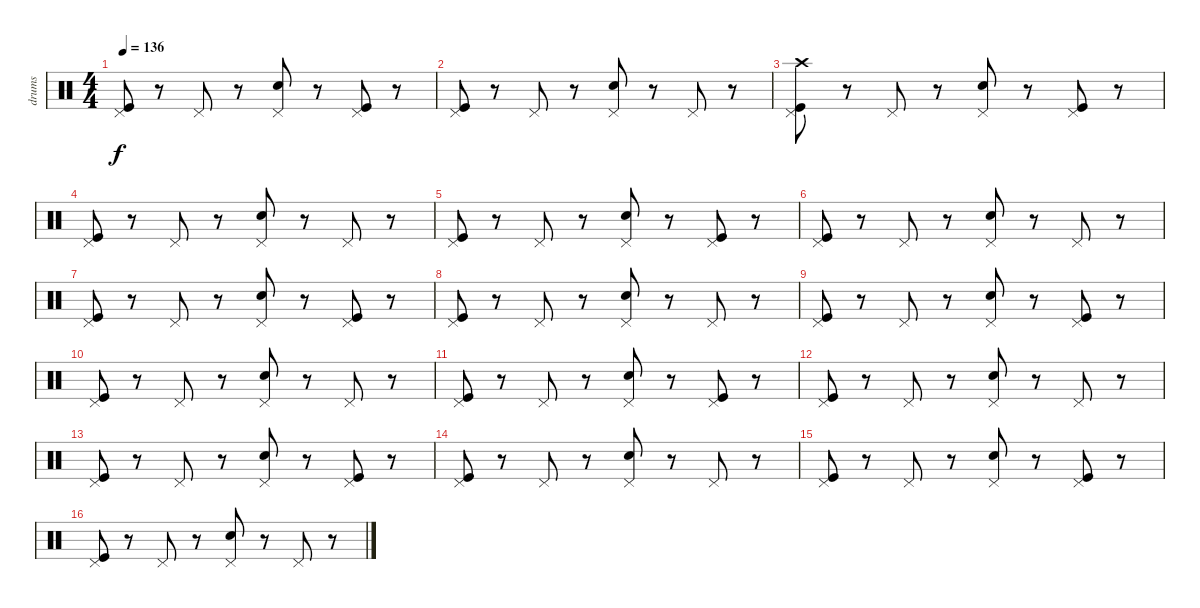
\track ("drums" "drums") {instrument percussion}
\staff {score}
\articulation defaults
\ts (4 4)
\tempo 136
\clef neutral
\ks c
("Kick (hit)" "Pedal Hi-Hat (hit)").8{dy f} r.8 "Pedal Hi-Hat (hit)".8 r.8 ("Snare (hit) 2" "Pedal Hi-Hat (hit)").8 r.8 ("Kick (hit)" "Pedal Hi-Hat (hit)").8 r.8 |
("Kick (hit)" "Pedal Hi-Hat (hit)").8 r.8 "Pedal Hi-Hat (hit)".8 r.8 ("Snare (hit) 2" "Pedal Hi-Hat (hit)").8 r.8 "Pedal Hi-Hat (hit)".8 r.8 |
("Kick (hit)" "Crash high (hit)" "Pedal Hi-Hat (hit)").8 r.8 "Pedal Hi-Hat (hit)".8 r.8 ("Snare (hit) 2" "Pedal Hi-Hat (hit)").8 r.8 ("Kick (hit)" "Pedal Hi-Hat (hit)").8 r.8 |
("Kick (hit)" "Pedal Hi-Hat (hit)").8 r.8 "Pedal Hi-Hat (hit)".8 r.8 ("Snare (hit) 2" "Pedal Hi-Hat (hit)").8 r.8 "Pedal Hi-Hat (hit)".8 r.8 |
("Kick (hit)" "Pedal Hi-Hat (hit)").8 r.8 "Pedal Hi-Hat (hit)".8 r.8 ("Snare (hit) 2" "Pedal Hi-Hat (hit)").8 r.8 ("Kick (hit)" "Pedal Hi-Hat (hit)").8 r.8 |
("Kick (hit)" "Pedal Hi-Hat (hit)").8 r.8 "Pedal Hi-Hat (hit)".8 r.8 ("Snare (hit) 2" "Pedal Hi-Hat (hit)").8 r.8 "Pedal Hi-Hat (hit)".8 r.8 |
("Kick (hit)" "Pedal Hi-Hat (hit)").8 r.8 "Pedal Hi-Hat (hit)".8 r.8 ("Snare (hit) 2" "Pedal Hi-Hat (hit)").8 r.8 ("Kick (hit)" "Pedal Hi-Hat (hit)").8 r.8 |
("Kick (hit)" "Pedal Hi-Hat (hit)").8 r.8 "Pedal Hi-Hat (hit)".8 r.8 ("Snare (hit) 2" "Pedal Hi-Hat (hit)").8 r.8 "Pedal Hi-Hat (hit)".8 r.8 |
("Kick (hit)" "Pedal Hi-Hat (hit)").8 r.8 "Pedal Hi-Hat (hit)".8 r.8 ("Snare (hit) 2" "Pedal Hi-Hat (hit)").8 r.8 ("Kick (hit)" "Pedal Hi-Hat (hit)").8 r.8 |
("Kick (hit)" "Pedal Hi-Hat (hit)").8 r.8 "Pedal Hi-Hat (hit)".8 r.8 ("Snare (hit) 2" "Pedal Hi-Hat (hit)").8 r.8 "Pedal Hi-Hat (hit)".8 r.8 |
("Kick (hit)" "Pedal Hi-Hat (hit)").8 r.8 "Pedal Hi-Hat (hit)".8 r.8 ("Snare (hit) 2" "Pedal Hi-Hat (hit)").8 r.8 ("Kick (hit)" "Pedal Hi-Hat (hit)").8 r.8 |
("Kick (hit)" "Pedal Hi-Hat (hit)").8 r.8 "Pedal Hi-Hat (hit)".8 r.8 ("Snare (hit) 2" "Pedal Hi-Hat (hit)").8 r.8 "Pedal Hi-Hat (hit)".8 r.8 |
("Kick (hit)" "Pedal Hi-Hat (hit)").8 r.8 "Pedal Hi-Hat (hit)".8 r.8 ("Snare (hit) 2" "Pedal Hi-Hat (hit)").8 r.8 ("Kick (hit)" "Pedal Hi-Hat (hit)").8 r.8 |
("Kick (hit)" "Pedal Hi-Hat (hit)").8 r.8 "Pedal Hi-Hat (hit)".8 r.8 ("Snare (hit) 2" "Pedal Hi-Hat (hit)").8 r.8 "Pedal Hi-Hat (hit)".8 r.8 |
("Kick (hit)" "Pedal Hi-Hat (hit)").8 r.8 "Pedal Hi-Hat (hit)".8 r.8 ("Snare (hit) 2" "Pedal Hi-Hat (hit)").8 r.8 ("Kick (hit)" "Pedal Hi-Hat (hit)").8 r.8 |
("Kick (hit)" "Pedal Hi-Hat (hit)").8 r.8 "Pedal Hi-Hat (hit)".8 r.8 ("Snare (hit) 2" "Pedal Hi-Hat (hit)").8 r.8 "Pedal Hi-Hat (hit)".8 r.8
